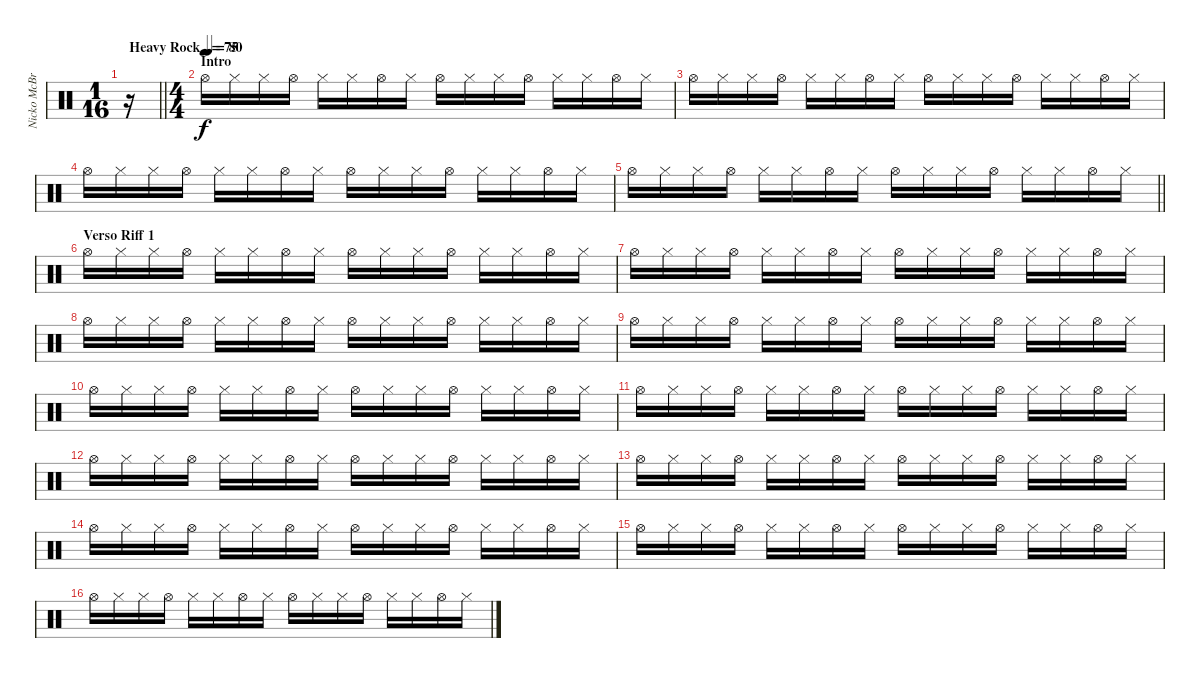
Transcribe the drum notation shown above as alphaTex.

\track ("Nicko McBrain" "Nicko McBr") {instrument percussion}
\staff {score}
\articulation defaults
\ts (1 16)
\tempo (80 "Heavy Rock")
\clef neutral
\barLineRight lightlight
\ks c
r.16{dy f} |
\ts (4 4)
\section ("" "Intro")
\tempo (75)
"Hi-Hat (open)".16 "Hi-Hat (closed)".16 "Hi-Hat (closed)".16 "Hi-Hat (open)".16 "Hi-Hat (closed)".16 "Hi-Hat (closed)".16 "Hi-Hat (open)".16 "Hi-Hat (closed)".16 "Hi-Hat (open)".16 "Hi-Hat (closed)".16 "Hi-Hat (closed)".16 "Hi-Hat (open)".16 "Hi-Hat (closed)".16 "Hi-Hat (closed)".16 "Hi-Hat (open)".16 "Hi-Hat (closed)".16 |
"Hi-Hat (open)".16 "Hi-Hat (closed)".16 "Hi-Hat (closed)".16 "Hi-Hat (open)".16 "Hi-Hat (closed)".16 "Hi-Hat (closed)".16 "Hi-Hat (open)".16 "Hi-Hat (closed)".16 "Hi-Hat (open)".16 "Hi-Hat (closed)".16 "Hi-Hat (closed)".16 "Hi-Hat (open)".16 "Hi-Hat (closed)".16 "Hi-Hat (closed)".16 "Hi-Hat (open)".16 "Hi-Hat (closed)".16 |
"Hi-Hat (open)".16 "Hi-Hat (closed)".16 "Hi-Hat (closed)".16 "Hi-Hat (open)".16 "Hi-Hat (closed)".16 "Hi-Hat (closed)".16 "Hi-Hat (open)".16 "Hi-Hat (closed)".16 "Hi-Hat (open)".16 "Hi-Hat (closed)".16 "Hi-Hat (closed)".16 "Hi-Hat (open)".16 "Hi-Hat (closed)".16 "Hi-Hat (closed)".16 "Hi-Hat (open)".16 "Hi-Hat (closed)".16 |
\barLineRight lightlight "Hi-Hat (open)".16 "Hi-Hat (closed)".16 "Hi-Hat (closed)".16 "Hi-Hat (open)".16 "Hi-Hat (closed)".16 "Hi-Hat (closed)".16 "Hi-Hat (open)".16 "Hi-Hat (closed)".16 "Hi-Hat (open)".16 "Hi-Hat (closed)".16 "Hi-Hat (closed)".16 "Hi-Hat (open)".16 "Hi-Hat (closed)".16 "Hi-Hat (closed)".16 "Hi-Hat (open)".16 "Hi-Hat (closed)".16
|
\section ("" "Verso Riff 1")
"Hi-Hat (open)".16 "Hi-Hat (closed)".16 "Hi-Hat (closed)".16 "Hi-Hat (open)".16 "Hi-Hat (closed)".16 "Hi-Hat (closed)".16 "Hi-Hat (open)".16 "Hi-Hat (closed)".16 "Hi-Hat (open)".16 "Hi-Hat (closed)".16 "Hi-Hat (closed)".16 "Hi-Hat (open)".16 "Hi-Hat (closed)".16 "Hi-Hat (closed)".16 "Hi-Hat (open)".16 "Hi-Hat (closed)".16 |
"Hi-Hat (open)".16 "Hi-Hat (closed)".16 "Hi-Hat (closed)".16 "Hi-Hat (open)".16 "Hi-Hat (closed)".16 "Hi-Hat (closed)".16 "Hi-Hat (open)".16 "Hi-Hat (closed)".16 "Hi-Hat (open)".16 "Hi-Hat (closed)".16 "Hi-Hat (closed)".16 "Hi-Hat (open)".16 "Hi-Hat (closed)".16 "Hi-Hat (closed)".16 "Hi-Hat (open)".16 "Hi-Hat (closed)".16 |
"Hi-Hat (open)".16 "Hi-Hat (closed)".16 "Hi-Hat (closed)".16 "Hi-Hat (open)".16 "Hi-Hat (closed)".16 "Hi-Hat (closed)".16 "Hi-Hat (open)".16 "Hi-Hat (closed)".16 "Hi-Hat (open)".16 "Hi-Hat (closed)".16 "Hi-Hat (closed)".16 "Hi-Hat (open)".16 "Hi-Hat (closed)".16 "Hi-Hat (closed)".16 "Hi-Hat (open)".16 "Hi-Hat (closed)".16 |
"Hi-Hat (open)".16 "Hi-Hat (closed)".16 "Hi-Hat (closed)".16 "Hi-Hat (open)".16 "Hi-Hat (closed)".16 "Hi-Hat (closed)".16 "Hi-Hat (open)".16 "Hi-Hat (closed)".16 "Hi-Hat (open)".16 "Hi-Hat (closed)".16 "Hi-Hat (closed)".16 "Hi-Hat (open)".16 "Hi-Hat (closed)".16 "Hi-Hat (closed)".16 "Hi-Hat (open)".16 "Hi-Hat (closed)".16 |
"Hi-Hat (open)".16 "Hi-Hat (closed)".16 "Hi-Hat (closed)".16 "Hi-Hat (open)".16 "Hi-Hat (closed)".16 "Hi-Hat (closed)".16 "Hi-Hat (open)".16 "Hi-Hat (closed)".16 "Hi-Hat (open)".16 "Hi-Hat (closed)".16 "Hi-Hat (closed)".16 "Hi-Hat (open)".16 "Hi-Hat (closed)".16 "Hi-Hat (closed)".16 "Hi-Hat (open)".16 "Hi-Hat (closed)".16 |
"Hi-Hat (open)".16 "Hi-Hat (closed)".16 "Hi-Hat (closed)".16 "Hi-Hat (open)".16 "Hi-Hat (closed)".16 "Hi-Hat (closed)".16 "Hi-Hat (open)".16 "Hi-Hat (closed)".16 "Hi-Hat (open)".16 "Hi-Hat (closed)".16 "Hi-Hat (closed)".16 "Hi-Hat (open)".16 "Hi-Hat (closed)".16 "Hi-Hat (closed)".16 "Hi-Hat (open)".16 "Hi-Hat (closed)".16 |
"Hi-Hat (open)".16 "Hi-Hat (closed)".16 "Hi-Hat (closed)".16 "Hi-Hat (open)".16 "Hi-Hat (closed)".16 "Hi-Hat (closed)".16 "Hi-Hat (open)".16 "Hi-Hat (closed)".16 "Hi-Hat (open)".16 "Hi-Hat (closed)".16 "Hi-Hat (closed)".16 "Hi-Hat (open)".16 "Hi-Hat (closed)".16 "Hi-Hat (closed)".16 "Hi-Hat (open)".16 "Hi-Hat (closed)".16 |
"Hi-Hat (open)".16 "Hi-Hat (closed)".16 "Hi-Hat (closed)".16 "Hi-Hat (open)".16 "Hi-Hat (closed)".16 "Hi-Hat (closed)".16 "Hi-Hat (open)".16 "Hi-Hat (closed)".16 "Hi-Hat (open)".16 "Hi-Hat (closed)".16 "Hi-Hat (closed)".16 "Hi-Hat (open)".16 "Hi-Hat (closed)".16 "Hi-Hat (closed)".16 "Hi-Hat (open)".16 "Hi-Hat (closed)".16 |
"Hi-Hat (open)".16 "Hi-Hat (closed)".16 "Hi-Hat (closed)".16 "Hi-Hat (open)".16 "Hi-Hat (closed)".16 "Hi-Hat (closed)".16 "Hi-Hat (open)".16 "Hi-Hat (closed)".16 "Hi-Hat (open)".16 "Hi-Hat (closed)".16 "Hi-Hat (closed)".16 "Hi-Hat (open)".16 "Hi-Hat (closed)".16 "Hi-Hat (closed)".16 "Hi-Hat (open)".16 "Hi-Hat (closed)".16 |
"Hi-Hat (open)".16 "Hi-Hat (closed)".16 "Hi-Hat (closed)".16 "Hi-Hat (open)".16 "Hi-Hat (closed)".16 "Hi-Hat (closed)".16 "Hi-Hat (open)".16 "Hi-Hat (closed)".16 "Hi-Hat (open)".16 "Hi-Hat (closed)".16 "Hi-Hat (closed)".16 "Hi-Hat (open)".16 "Hi-Hat (closed)".16 "Hi-Hat (closed)".16 "Hi-Hat (open)".16 "Hi-Hat (closed)".16 |
"Hi-Hat (open)".16 "Hi-Hat (closed)".16 "Hi-Hat (closed)".16 "Hi-Hat (open)".16 "Hi-Hat (closed)".16 "Hi-Hat (closed)".16 "Hi-Hat (open)".16 "Hi-Hat (closed)".16 "Hi-Hat (open)".16 "Hi-Hat (closed)".16 "Hi-Hat (closed)".16 "Hi-Hat (open)".16 "Hi-Hat (closed)".16 "Hi-Hat (closed)".16 "Hi-Hat (open)".16 "Hi-Hat (closed)".16
